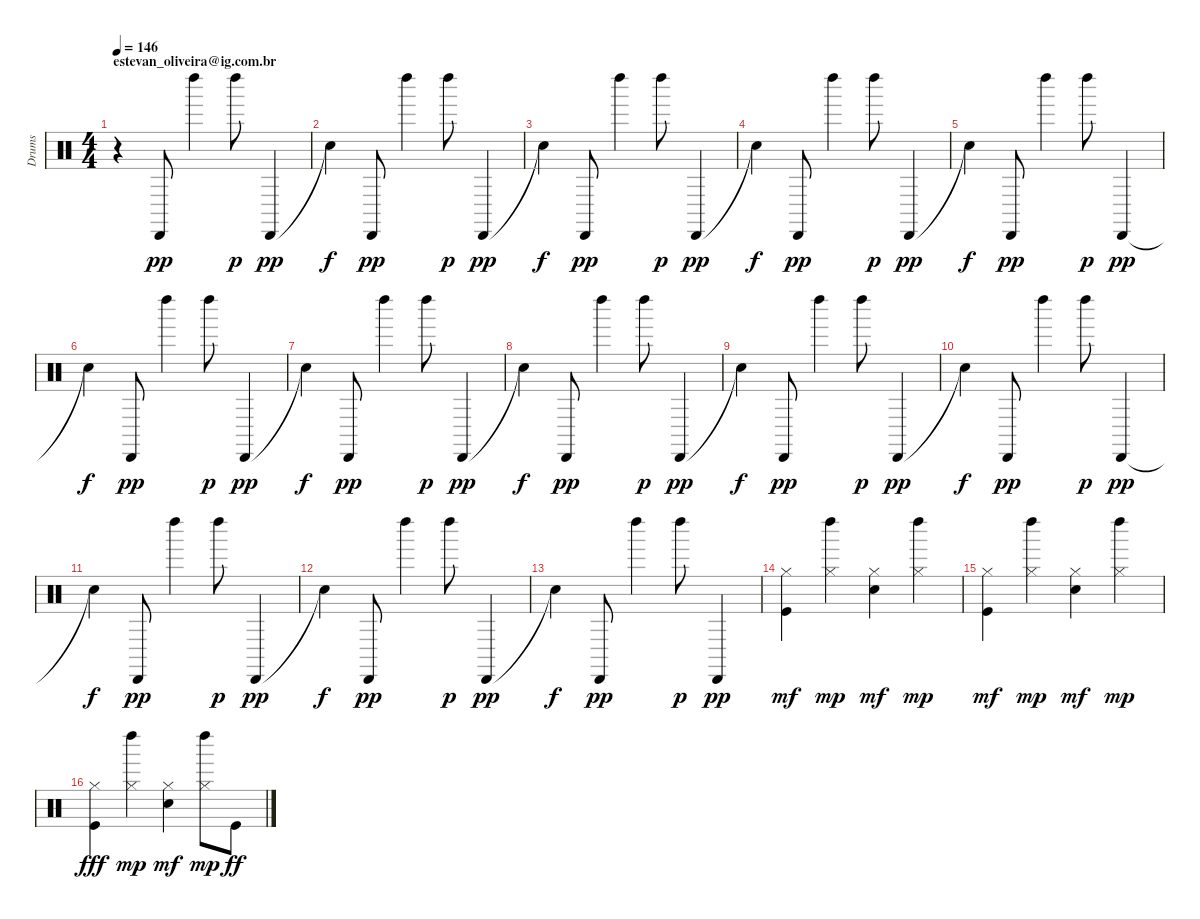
\track ("Drums" "Drums") {instrument percussion}
\staff {score}
\articulation defaults
\ts (4 4)
\section ("" "estevan_oliveira@ig.com.br")
\tempo 146
\clef neutral
\ks c
r.4{dy pp} "Cabasa (hit)".8 "Left Maraca (hit)".4 "Left Maraca (hit)".8{dy p} "Cabasa (hit)".4{dy pp} |
"Snare (hit)"{t}.4{dy f} "Cabasa (hit)".8{dy pp} "Left Maraca (hit)".4 "Left Maraca (hit)".8{dy p} "Cabasa (hit)".4{dy pp} |
"Snare (hit)"{t}.4{dy f} "Cabasa (hit)".8{dy pp} "Left Maraca (hit)".4 "Left Maraca (hit)".8{dy p} "Cabasa (hit)".4{dy pp} |
"Snare (hit)"{t}.4{dy f} "Cabasa (hit)".8{dy pp} "Left Maraca (hit)".4 "Left Maraca (hit)".8{dy p} "Cabasa (hit)".4{dy pp} |
"Snare (hit)"{t}.4{dy f} "Cabasa (hit)".8{dy pp} "Left Maraca (hit)".4 "Left Maraca (hit)".8{dy p} "Cabasa (hit)".4{dy pp} |
"Snare (hit)"{t}.4{dy f} "Cabasa (hit)".8{dy pp} "Left Maraca (hit)".4 "Left Maraca (hit)".8{dy p} "Cabasa (hit)".4{dy pp} |
"Snare (hit)"{t}.4{dy f} "Cabasa (hit)".8{dy pp} "Left Maraca (hit)".4 "Left Maraca (hit)".8{dy p} "Cabasa (hit)".4{dy pp} |
"Snare (hit)"{t}.4{dy f} "Cabasa (hit)".8{dy pp} "Left Maraca (hit)".4 "Left Maraca (hit)".8{dy p} "Cabasa (hit)".4{dy pp} |
"Snare (hit)"{t}.4{dy f} "Cabasa (hit)".8{dy pp} "Left Maraca (hit)".4 "Left Maraca (hit)".8{dy p} "Cabasa (hit)".4{dy pp} |
"Snare (hit)"{t}.4{dy f} "Cabasa (hit)".8{dy pp} "Left Maraca (hit)".4 "Left Maraca (hit)".8{dy p} "Cabasa (hit)".4{dy pp} |
"Snare (hit)"{t}.4{dy f} "Cabasa (hit)".8{dy pp} "Left Maraca (hit)".4 "Left Maraca (hit)".8{dy p} "Cabasa (hit)".4{dy pp} |
"Snare (hit)"{t}.4{dy f} "Cabasa (hit)".8{dy pp} "Left Maraca (hit)".4 "Left Maraca (hit)".8{dy p} "Cabasa (hit)".4{dy pp} |
"Snare (hit)"{t}.4{dy f} "Cabasa (hit)".8{dy pp} "Left Maraca (hit)".4 "Left Maraca (hit)".8{dy p} "Cabasa (hit)".4{dy pp} |
("Kick (hit)" "Hi-Hat (closed)").4{dy mf} ("Hi-Hat (closed)" "Left Maraca (hit)").4{dy mp} ("Electric Snare (hit)" "Hi-Hat (closed)").4{dy mf} ("Left Maraca (hit)" "Hi-Hat (closed)").4{dy mp} |
("Kick (hit)" "Hi-Hat (closed)").4{dy mf} ("Hi-Hat (closed)" "Left Maraca (hit)").4{dy mp} ("Electric Snare (hit)" "Hi-Hat (closed)").4{dy mf} ("Left Maraca (hit)" "Hi-Hat (closed)").4{dy mp} |
("Hi-Hat (closed)" "Kick (hit)").4{dy fff} ("Left Maraca (hit)" "Hi-Hat (closed)").4{dy mp} ("Electric Snare (hit)" "Hi-Hat (closed)").4{dy mf} ("Hi-Hat (closed)" "Left Maraca (hit)").8{dy mp} "Kick (hit)".8{dy ff}
